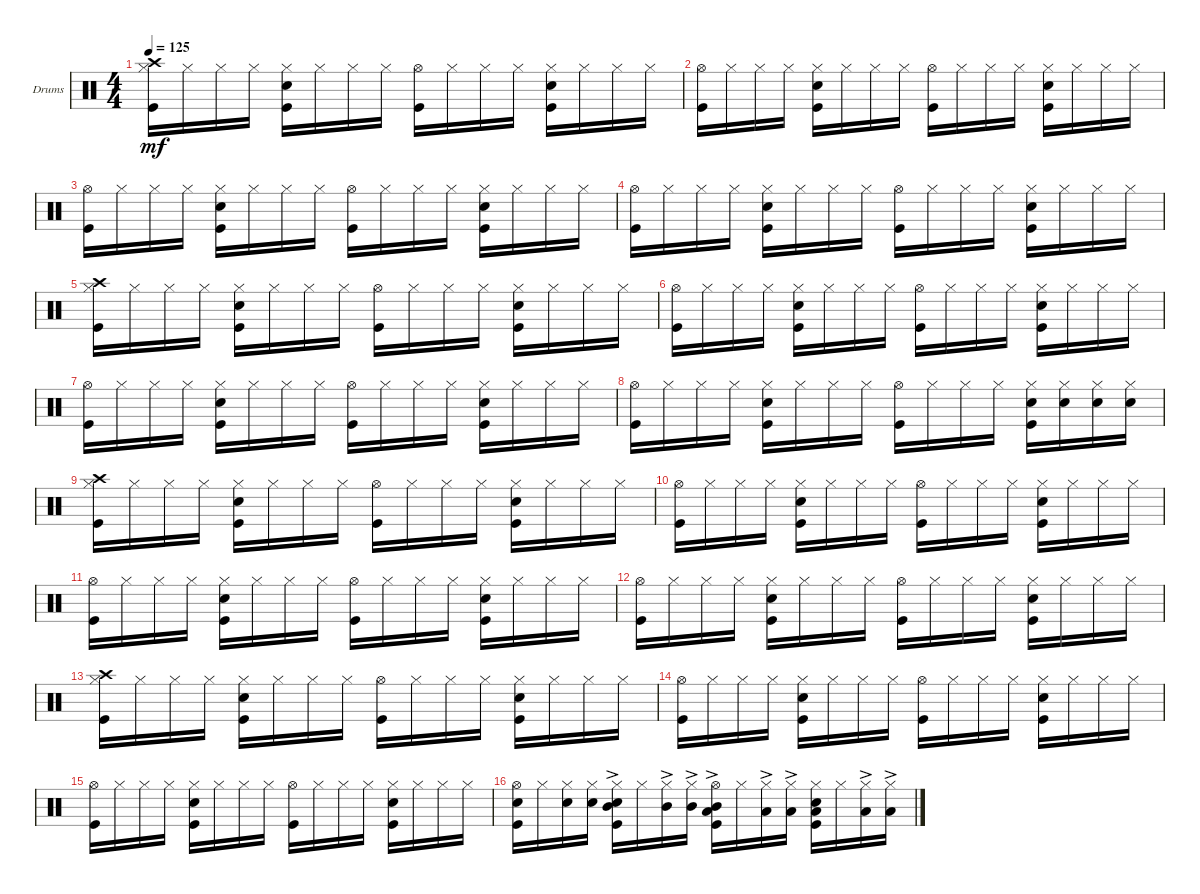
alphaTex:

\defaultSystemsLayout 4
\bracketExtendMode groupsimilarinstruments
\firstSystemTrackNameOrientation horizontal
\otherSystemsTrackNameOrientation horizontal
\track ("Drumkit" "Drums") {instrument percussion}
\staff {score}
\articulation defaults
\ts (4 4)
\tempo 125
\clef neutral
\ks c
("Hi-Hat (closed)" "Kick (hit)" "Crash high (hit)").16{dy mf} "Hi-Hat (closed)".16 "Hi-Hat (closed)".16 "Hi-Hat (closed)".16 ("Hi-Hat (closed)" "Kick (hit)" "Snare (hit) 2").16 "Hi-Hat (closed)".16 "Hi-Hat (closed)".16 "Hi-Hat (closed)".16 ("Hi-Hat (open)" "Kick (hit)").16 "Hi-Hat (closed)".16 "Hi-Hat (closed)".16 "Hi-Hat (closed)".16 ("Hi-Hat (closed)" "Kick (hit)" "Snare (hit) 2").16 "Hi-Hat (closed)".16 "Hi-Hat (closed)".16 "Hi-Hat (closed)".16 |
("Hi-Hat (open)" "Kick (hit)").16 "Hi-Hat (closed)".16 "Hi-Hat (closed)".16 "Hi-Hat (closed)".16 ("Hi-Hat (closed)" "Kick (hit)" "Snare (hit) 2").16 "Hi-Hat (closed)".16 "Hi-Hat (closed)".16 "Hi-Hat (closed)".16 ("Hi-Hat (open)" "Kick (hit)").16 "Hi-Hat (closed)".16 "Hi-Hat (closed)".16 "Hi-Hat (closed)".16 ("Hi-Hat (closed)" "Kick (hit)" "Snare (hit) 2").16 "Hi-Hat (closed)".16 "Hi-Hat (closed)".16 "Hi-Hat (closed)".16 |
("Hi-Hat (open)" "Kick (hit)").16 "Hi-Hat (closed)".16 "Hi-Hat (closed)".16 "Hi-Hat (closed)".16 ("Hi-Hat (closed)" "Kick (hit)" "Snare (hit) 2").16 "Hi-Hat (closed)".16 "Hi-Hat (closed)".16 "Hi-Hat (closed)".16 ("Hi-Hat (open)" "Kick (hit)").16 "Hi-Hat (closed)".16 "Hi-Hat (closed)".16 "Hi-Hat (closed)".16 ("Hi-Hat (closed)" "Kick (hit)" "Snare (hit) 2").16 "Hi-Hat (closed)".16 "Hi-Hat (closed)".16 "Hi-Hat (closed)".16 |
("Hi-Hat (open)" "Kick (hit)").16 "Hi-Hat (closed)".16 "Hi-Hat (closed)".16 "Hi-Hat (closed)".16 ("Hi-Hat (closed)" "Kick (hit)" "Snare (hit) 2").16 "Hi-Hat (closed)".16 "Hi-Hat (closed)".16 "Hi-Hat (closed)".16 ("Hi-Hat (open)" "Kick (hit)").16 "Hi-Hat (closed)".16 "Hi-Hat (closed)".16 "Hi-Hat (closed)".16 ("Hi-Hat (closed)" "Kick (hit)" "Snare (hit) 2").16 "Hi-Hat (closed)".16 "Hi-Hat (closed)".16 "Hi-Hat (closed)".16 |
("Hi-Hat (closed)" "Kick (hit)" "Crash high (hit)").16 "Hi-Hat (closed)".16 "Hi-Hat (closed)".16 "Hi-Hat (closed)".16 ("Hi-Hat (closed)" "Kick (hit)" "Snare (hit) 2").16 "Hi-Hat (closed)".16 "Hi-Hat (closed)".16 "Hi-Hat (closed)".16 ("Hi-Hat (open)" "Kick (hit)").16 "Hi-Hat (closed)".16 "Hi-Hat (closed)".16 "Hi-Hat (closed)".16 ("Hi-Hat (closed)" "Kick (hit)" "Snare (hit) 2").16 "Hi-Hat (closed)".16 "Hi-Hat (closed)".16 "Hi-Hat (closed)".16 |
("Hi-Hat (open)" "Kick (hit)").16 "Hi-Hat (closed)".16 "Hi-Hat (closed)".16 "Hi-Hat (closed)".16 ("Hi-Hat (closed)" "Kick (hit)" "Snare (hit) 2").16 "Hi-Hat (closed)".16 "Hi-Hat (closed)".16 "Hi-Hat (closed)".16 ("Hi-Hat (open)" "Kick (hit)").16 "Hi-Hat (closed)".16 "Hi-Hat (closed)".16 "Hi-Hat (closed)".16 ("Hi-Hat (closed)" "Kick (hit)" "Snare (hit) 2").16 "Hi-Hat (closed)".16 "Hi-Hat (closed)".16 "Hi-Hat (closed)".16 |
("Hi-Hat (open)" "Kick (hit)").16 "Hi-Hat (closed)".16 "Hi-Hat (closed)".16 "Hi-Hat (closed)".16 ("Hi-Hat (closed)" "Kick (hit)" "Snare (hit) 2").16 "Hi-Hat (closed)".16 "Hi-Hat (closed)".16 "Hi-Hat (closed)".16 ("Hi-Hat (open)" "Kick (hit)").16 "Hi-Hat (closed)".16 "Hi-Hat (closed)".16 "Hi-Hat (closed)".16 ("Hi-Hat (closed)" "Kick (hit)" "Snare (hit) 2").16 "Hi-Hat (closed)".16 "Hi-Hat (closed)".16 "Hi-Hat (closed)".16 |
("Hi-Hat (open)" "Kick (hit)").16 "Hi-Hat (closed)".16 "Hi-Hat (closed)".16 "Hi-Hat (closed)".16 ("Hi-Hat (closed)" "Kick (hit)" "Snare (hit) 2").16 "Hi-Hat (closed)".16 "Hi-Hat (closed)".16 "Hi-Hat (closed)".16 ("Hi-Hat (open)" "Kick (hit)").16 "Hi-Hat (closed)".16 "Hi-Hat (closed)".16 "Hi-Hat (closed)".16 ("Hi-Hat (closed)" "Kick (hit)" "Snare (hit) 2").16 ("Hi-Hat (closed)" "Snare (hit) 2").16 ("Hi-Hat (closed)" "Snare (hit) 2").16 ("Hi-Hat (closed)" "Snare (hit) 2").16 |
("Hi-Hat (closed)" "Kick (hit)" "Crash high (hit)").16 "Hi-Hat (closed)".16 "Hi-Hat (closed)".16 "Hi-Hat (closed)".16 ("Hi-Hat (closed)" "Kick (hit)" "Snare (hit) 2").16 "Hi-Hat (closed)".16 "Hi-Hat (closed)".16 "Hi-Hat (closed)".16 ("Hi-Hat (open)" "Kick (hit)").16 "Hi-Hat (closed)".16 "Hi-Hat (closed)".16 "Hi-Hat (closed)".16 ("Hi-Hat (closed)" "Kick (hit)" "Snare (hit) 2").16 "Hi-Hat (closed)".16 "Hi-Hat (closed)".16 "Hi-Hat (closed)".16 |
("Hi-Hat (open)" "Kick (hit)").16 "Hi-Hat (closed)".16 "Hi-Hat (closed)".16 "Hi-Hat (closed)".16 ("Hi-Hat (closed)" "Kick (hit)" "Snare (hit) 2").16 "Hi-Hat (closed)".16 "Hi-Hat (closed)".16 "Hi-Hat (closed)".16 ("Hi-Hat (open)" "Kick (hit)").16 "Hi-Hat (closed)".16 "Hi-Hat (closed)".16 "Hi-Hat (closed)".16 ("Hi-Hat (closed)" "Kick (hit)" "Snare (hit) 2").16 "Hi-Hat (closed)".16 "Hi-Hat (closed)".16 "Hi-Hat (closed)".16 |
("Hi-Hat (open)" "Kick (hit)").16 "Hi-Hat (closed)".16 "Hi-Hat (closed)".16 "Hi-Hat (closed)".16 ("Hi-Hat (closed)" "Kick (hit)" "Snare (hit) 2").16 "Hi-Hat (closed)".16 "Hi-Hat (closed)".16 "Hi-Hat (closed)".16 ("Hi-Hat (open)" "Kick (hit)").16 "Hi-Hat (closed)".16 "Hi-Hat (closed)".16 "Hi-Hat (closed)".16 ("Hi-Hat (closed)" "Kick (hit)" "Snare (hit) 2").16 "Hi-Hat (closed)".16 "Hi-Hat (closed)".16 "Hi-Hat (closed)".16 |
("Hi-Hat (open)" "Kick (hit)").16 "Hi-Hat (closed)".16 "Hi-Hat (closed)".16 "Hi-Hat (closed)".16 ("Hi-Hat (closed)" "Kick (hit)" "Snare (hit) 2").16 "Hi-Hat (closed)".16 "Hi-Hat (closed)".16 "Hi-Hat (closed)".16 ("Hi-Hat (open)" "Kick (hit)").16 "Hi-Hat (closed)".16 "Hi-Hat (closed)".16 "Hi-Hat (closed)".16 ("Hi-Hat (closed)" "Kick (hit)" "Snare (hit) 2").16 "Hi-Hat (closed)".16 "Hi-Hat (closed)".16 "Hi-Hat (closed)".16 |
("Hi-Hat (closed)" "Kick (hit)" "Crash high (hit)").16 "Hi-Hat (closed)".16 "Hi-Hat (closed)".16 "Hi-Hat (closed)".16 ("Hi-Hat (closed)" "Kick (hit)" "Snare (hit) 2").16 "Hi-Hat (closed)".16 "Hi-Hat (closed)".16 "Hi-Hat (closed)".16 ("Hi-Hat (open)" "Kick (hit)").16 "Hi-Hat (closed)".16 "Hi-Hat (closed)".16 "Hi-Hat (closed)".16 ("Hi-Hat (closed)" "Kick (hit)" "Snare (hit) 2").16 "Hi-Hat (closed)".16 "Hi-Hat (closed)".16 "Hi-Hat (closed)".16 |
("Hi-Hat (open)" "Kick (hit)").16 "Hi-Hat (closed)".16 "Hi-Hat (closed)".16 "Hi-Hat (closed)".16 ("Hi-Hat (closed)" "Kick (hit)" "Snare (hit) 2").16 "Hi-Hat (closed)".16 "Hi-Hat (closed)".16 "Hi-Hat (closed)".16 ("Hi-Hat (open)" "Kick (hit)").16 "Hi-Hat (closed)".16 "Hi-Hat (closed)".16 "Hi-Hat (closed)".16 ("Hi-Hat (closed)" "Kick (hit)" "Snare (hit) 2").16 "Hi-Hat (closed)".16 "Hi-Hat (closed)".16 "Hi-Hat (closed)".16 |
("Hi-Hat (open)" "Kick (hit)").16 "Hi-Hat (closed)".16 "Hi-Hat (closed)".16 "Hi-Hat (closed)".16 ("Hi-Hat (closed)" "Kick (hit)" "Snare (hit) 2").16 "Hi-Hat (closed)".16 "Hi-Hat (closed)".16 "Hi-Hat (closed)".16 ("Hi-Hat (open)" "Kick (hit)").16 "Hi-Hat (closed)".16 "Hi-Hat (closed)".16 "Hi-Hat (closed)".16 ("Hi-Hat (closed)" "Kick (hit)" "Snare (hit) 2").16 "Hi-Hat (closed)".16 "Hi-Hat (closed)".16 "Hi-Hat (closed)".16 |
("Hi-Hat (open)" "Kick (hit)" "Snare (hit) 2").16 "Hi-Hat (closed)".16 ("Hi-Hat (closed)" "Snare (hit) 2").16 ("Hi-Hat (closed)" "Snare (hit) 2").16 ("Hi-Hat (closed)" "Kick (hit)" "Snare (hit) 2" "Mid Tom (hit)"{ac}).16 "Hi-Hat (closed)".16 ("Hi-Hat (closed)" "Mid Tom (hit)"{ac}).16 ("Hi-Hat (closed)" "Mid Tom (hit)"{ac}).16 ("Hi-Hat (open)" "Kick (hit)" "Mid Tom (hit)" "Low Tom (hit)"{ac}).16 "Hi-Hat (closed)".16 ("Hi-Hat (closed)" "Low Tom (hit)"{ac}).16 ("Hi-Hat (closed)" "Low Tom (hit)"{ac}).16 ("Hi-Hat (closed)" "Kick (hit)" "Snare (hit) 2" "Low Tom (hit)").16 "Hi-Hat (closed)".16 ("Hi-Hat (closed)" "Low Tom (hit)"{ac}).16 ("Hi-Hat (closed)" "Low Tom (hit)"{ac}).16
